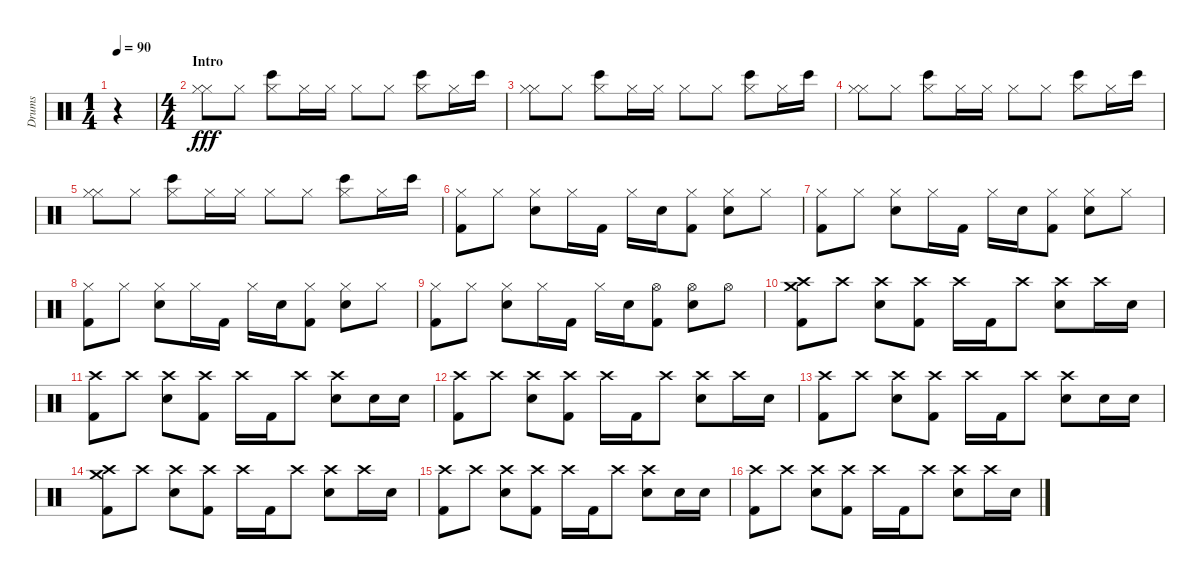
\track ("Drums" "Drums") {instrument percussion}
\staff {score}
\articulation defaults
\ts (1 4)
\tempo 90
\clef neutral
\ks c
r.4{dy fff} |
\ts (4 4)
\section ("" "Intro")
("Hi-Hat (closed)" "Hi-Hat (closed)").8 "Hi-Hat (closed)".8 ("Hi-Hat (closed)" "Bongo High (hit)").8 "Hi-Hat (closed)".16 "Hi-Hat (closed)".16 "Hi-Hat (closed)".8 "Hi-Hat (closed)".8 ("Hi-Hat (closed)" "Bongo High (hit)").8 "Hi-Hat (closed)".16 "Bongo High (hit)".16 |
("Hi-Hat (closed)" "Hi-Hat (closed)").8 "Hi-Hat (closed)".8 ("Hi-Hat (closed)" "Bongo High (hit)").8 "Hi-Hat (closed)".16 "Hi-Hat (closed)".16 "Hi-Hat (closed)".8 "Hi-Hat (closed)".8 ("Hi-Hat (closed)" "Bongo High (hit)").8 "Hi-Hat (closed)".16 "Bongo High (hit)".16 |
("Hi-Hat (closed)" "Hi-Hat (closed)").8 "Hi-Hat (closed)".8 ("Hi-Hat (closed)" "Bongo High (hit)").8 "Hi-Hat (closed)".16 "Hi-Hat (closed)".16 "Hi-Hat (closed)".8 "Hi-Hat (closed)".8 ("Hi-Hat (closed)" "Bongo High (hit)").8 "Hi-Hat (closed)".16 "Bongo High (hit)".16 |
("Hi-Hat (closed)" "Hi-Hat (closed)").8 "Hi-Hat (closed)".8 ("Hi-Hat (closed)" "Bongo High (hit)").8 "Hi-Hat (closed)".16 "Hi-Hat (closed)".16 "Hi-Hat (closed)".8 "Hi-Hat (closed)".8 ("Hi-Hat (closed)" "Bongo High (hit)").8 "Hi-Hat (closed)".16 "Bongo High (hit)".16 |
("Hi-Hat (closed)" "Kick (hit) 2").8 "Hi-Hat (closed)".8 ("Hi-Hat (closed)" "Electric Snare (hit)").8 "Hi-Hat (closed)".16 "Kick (hit) 2".16 "Hi-Hat (closed)".16 "Electric Snare (hit)".16 ("Hi-Hat (closed)" "Kick (hit) 2").8 ("Hi-Hat (closed)" "Electric Snare (hit)").8 "Hi-Hat (closed)".8 |
("Hi-Hat (closed)" "Kick (hit) 2").8 "Hi-Hat (closed)".8 ("Hi-Hat (closed)" "Electric Snare (hit)").8 "Hi-Hat (closed)".16 "Kick (hit) 2".16 "Hi-Hat (closed)".16 "Electric Snare (hit)".16 ("Hi-Hat (closed)" "Kick (hit) 2").8 ("Hi-Hat (closed)" "Electric Snare (hit)").8 "Hi-Hat (closed)".8 |
("Hi-Hat (closed)" "Kick (hit) 2").8 "Hi-Hat (closed)".8 ("Hi-Hat (closed)" "Electric Snare (hit)").8 "Hi-Hat (closed)".16 "Kick (hit) 2".16 "Hi-Hat (closed)".16 "Electric Snare (hit)".16 ("Hi-Hat (closed)" "Kick (hit) 2").8 ("Hi-Hat (closed)" "Electric Snare (hit)").8 "Hi-Hat (closed)".8 |
("Hi-Hat (closed)" "Kick (hit) 2").8 "Hi-Hat (closed)".8 ("Hi-Hat (closed)" "Electric Snare (hit)").8 "Hi-Hat (closed)".16 "Kick (hit) 2".16 "Hi-Hat (closed)".16 "Electric Snare (hit)".16 ("Hi-Hat (open)" "Kick (hit) 2").8 ("Hi-Hat (open)" "Electric Snare (hit)").8 "Hi-Hat (open)".8 |
("Crash high (hit)" "Crash medium (hit)" "Kick (hit) 2").8 "Crash high (hit)".8 ("Crash high (hit)" "Electric Snare (hit)").8 ("Crash high (hit)" "Kick (hit) 2").8 "Crash high (hit)".16 "Kick (hit) 2".16 "Crash high (hit)".8 ("Crash high (hit)" "Electric Snare (hit)").8 "Crash high (hit)".16 "Electric Snare (hit)".16 |
("Crash high (hit)" "Kick (hit) 2").8 "Crash high (hit)".8 ("Crash high (hit)" "Electric Snare (hit)").8 ("Crash high (hit)" "Kick (hit) 2").8 "Crash high (hit)".16 "Kick (hit) 2".16 "Crash high (hit)".8 ("Crash high (hit)" "Electric Snare (hit)").8 "Electric Snare (hit)".16 "Electric Snare (hit)".16 |
("Crash high (hit)" "Kick (hit) 2").8 "Crash high (hit)".8 ("Crash high (hit)" "Electric Snare (hit)").8 ("Crash high (hit)" "Kick (hit) 2").8 "Crash high (hit)".16 "Kick (hit) 2".16 "Crash high (hit)".8 ("Crash high (hit)" "Electric Snare (hit)").8 "Crash high (hit)".16 "Electric Snare (hit)".16 |
("Crash high (hit)" "Kick (hit) 2").8 "Crash high (hit)".8 ("Crash high (hit)" "Electric Snare (hit)").8 ("Crash high (hit)" "Kick (hit) 2").8 "Crash high (hit)".16 "Kick (hit) 2".16 "Crash high (hit)".8 ("Crash high (hit)" "Electric Snare (hit)").8 "Electric Snare (hit)".16 "Electric Snare (hit)".16 |
("Crash high (hit)" "Crash medium (hit)" "Kick (hit) 2").8 "Crash high (hit)".8 ("Crash high (hit)" "Electric Snare (hit)").8 ("Crash high (hit)" "Kick (hit) 2").8 "Crash high (hit)".16 "Kick (hit) 2".16 "Crash high (hit)".8 ("Crash high (hit)" "Electric Snare (hit)").8 "Crash high (hit)".16 "Electric Snare (hit)".16 |
("Crash high (hit)" "Kick (hit) 2").8 "Crash high (hit)".8 ("Crash high (hit)" "Electric Snare (hit)").8 ("Crash high (hit)" "Kick (hit) 2").8 "Crash high (hit)".16 "Kick (hit) 2".16 "Crash high (hit)".8 ("Crash high (hit)" "Electric Snare (hit)").8 "Electric Snare (hit)".16 "Electric Snare (hit)".16 |
("Crash high (hit)" "Kick (hit) 2").8 "Crash high (hit)".8 ("Crash high (hit)" "Electric Snare (hit)").8 ("Crash high (hit)" "Kick (hit) 2").8 "Crash high (hit)".16 "Kick (hit) 2".16 "Crash high (hit)".8 ("Crash high (hit)" "Electric Snare (hit)").8 "Crash high (hit)".16 "Electric Snare (hit)".16
